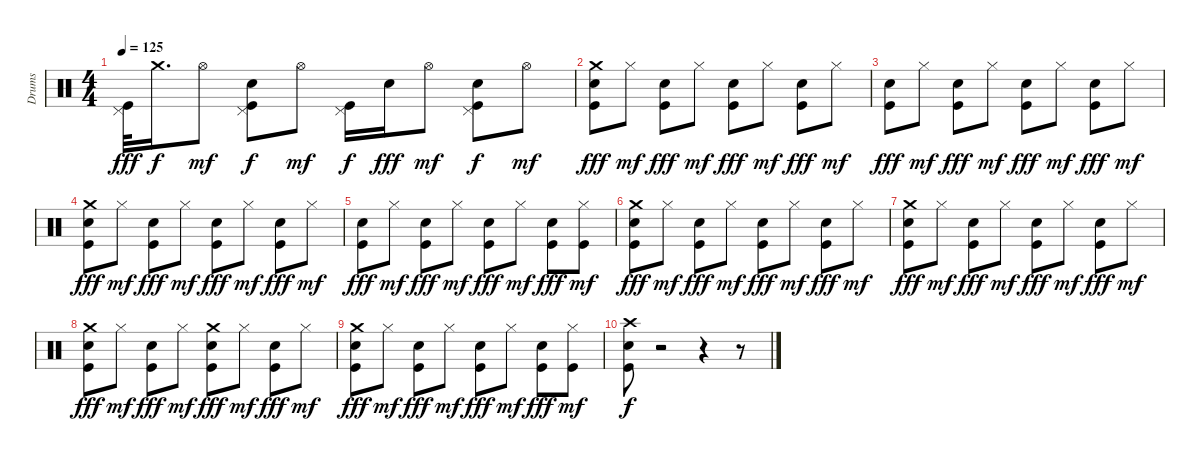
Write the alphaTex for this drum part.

\track ("Drums" "Drums") {instrument percussion}
\staff {score}
\articulation defaults
\ts (4 4)
\tempo 125
\clef neutral
\ks c
("Pedal Hi-Hat (hit)" "Kick (hit)").32{dy fff} "Crash medium (hit)".16{d dy f} "Hi-Hat (open)".8{dy mf} ("Electric Snare (hit)" "Kick (hit)" "Pedal Hi-Hat (hit)").8{dy f} "Hi-Hat (open)".8{dy mf} ("Kick (hit)" "Pedal Hi-Hat (hit)").16{dy f} "Electric Snare (hit)".16{dy fff} "Hi-Hat (open)".8{dy mf} ("Electric Snare (hit)" "Kick (hit)" "Pedal Hi-Hat (hit)").8{dy f} "Hi-Hat (open)".8{dy mf} |
("Crash medium (hit)" "Kick (hit)" "Electric Snare (hit)").8{dy fff} "Hi-Hat (closed)".8{dy mf} ("Kick (hit)" "Electric Snare (hit)").8{dy fff} "Hi-Hat (closed)".8{dy mf} ("Kick (hit)" "Electric Snare (hit)").8{dy fff} "Hi-Hat (closed)".8{dy mf} ("Kick (hit)" "Electric Snare (hit)").8{dy fff} "Hi-Hat (closed)".8{dy mf} |
("Kick (hit)" "Electric Snare (hit)").8{dy fff} "Hi-Hat (closed)".8{dy mf} ("Kick (hit)" "Electric Snare (hit)").8{dy fff} "Hi-Hat (closed)".8{dy mf} ("Kick (hit)" "Electric Snare (hit)").8{dy fff} "Hi-Hat (closed)".8{dy mf} ("Kick (hit)" "Electric Snare (hit)").8{dy fff} "Hi-Hat (closed)".8{dy mf} |
("Crash medium (hit)" "Electric Snare (hit)" "Kick (hit)").8{dy fff} "Hi-Hat (closed)".8{dy mf} ("Electric Snare (hit)" "Kick (hit)").8{dy fff} "Hi-Hat (closed)".8{dy mf} ("Electric Snare (hit)" "Kick (hit)").8{dy fff} "Hi-Hat (closed)".8{dy mf} ("Electric Snare (hit)" "Kick (hit)").8{dy fff} "Hi-Hat (closed)".8{dy mf} |
("Electric Snare (hit)" "Kick (hit)").8{dy fff} "Hi-Hat (closed)".8{dy mf} ("Electric Snare (hit)" "Kick (hit)").8{dy fff} "Hi-Hat (closed)".8{dy mf} ("Electric Snare (hit)" "Kick (hit)").8{dy fff} "Hi-Hat (closed)".8{dy mf} ("Electric Snare (hit)" "Kick (hit)").8{dy fff} ("Kick (hit)" "Hi-Hat (closed)").8{dy mf} |
("Crash medium (hit)" "Kick (hit)" "Electric Snare (hit)").8{dy fff} "Hi-Hat (closed)".8{dy mf} ("Kick (hit)" "Electric Snare (hit)").8{dy fff} "Hi-Hat (closed)".8{dy mf} ("Kick (hit)" "Electric Snare (hit)").8{dy fff} "Hi-Hat (closed)".8{dy mf} ("Kick (hit)" "Electric Snare (hit)").8{dy fff} "Hi-Hat (closed)".8{dy mf} |
("Crash medium (hit)" "Kick (hit)" "Electric Snare (hit)").8{dy fff} "Hi-Hat (closed)".8{dy mf} ("Kick (hit)" "Electric Snare (hit)").8{dy fff} "Hi-Hat (closed)".8{dy mf} ("Kick (hit)" "Electric Snare (hit)").8{dy fff} "Hi-Hat (closed)".8{dy mf} ("Kick (hit)" "Electric Snare (hit)").8{dy fff} "Hi-Hat (closed)".8{dy mf} |
("Crash medium (hit)" "Electric Snare (hit)" "Kick (hit)").8{dy fff} "Hi-Hat (closed)".8{dy mf} ("Kick (hit)" "Electric Snare (hit)").8{dy fff} "Hi-Hat (closed)".8{dy mf} ("Kick (hit)" "Electric Snare (hit)" "Crash medium (hit)").8{dy fff} "Hi-Hat (closed)".8{dy mf} ("Kick (hit)" "Electric Snare (hit)").8{dy fff} "Hi-Hat (closed)".8{dy mf} |
("Crash medium (hit)" "Kick (hit)" "Electric Snare (hit)").8{dy fff} "Hi-Hat (closed)".8{dy mf} ("Electric Snare (hit)" "Kick (hit)").8{dy fff} "Hi-Hat (closed)".8{dy mf} ("Electric Snare (hit)" "Kick (hit)").8{dy fff} "Hi-Hat (closed)".8{dy mf} ("Electric Snare (hit)" "Kick (hit)").8{dy fff} ("Kick (hit)" "Hi-Hat (closed)").8{dy mf} |
("Electric Snare (hit)" "Crash high (hit)" "Kick (hit)").8{dy f} r.2 r.4 r.8
